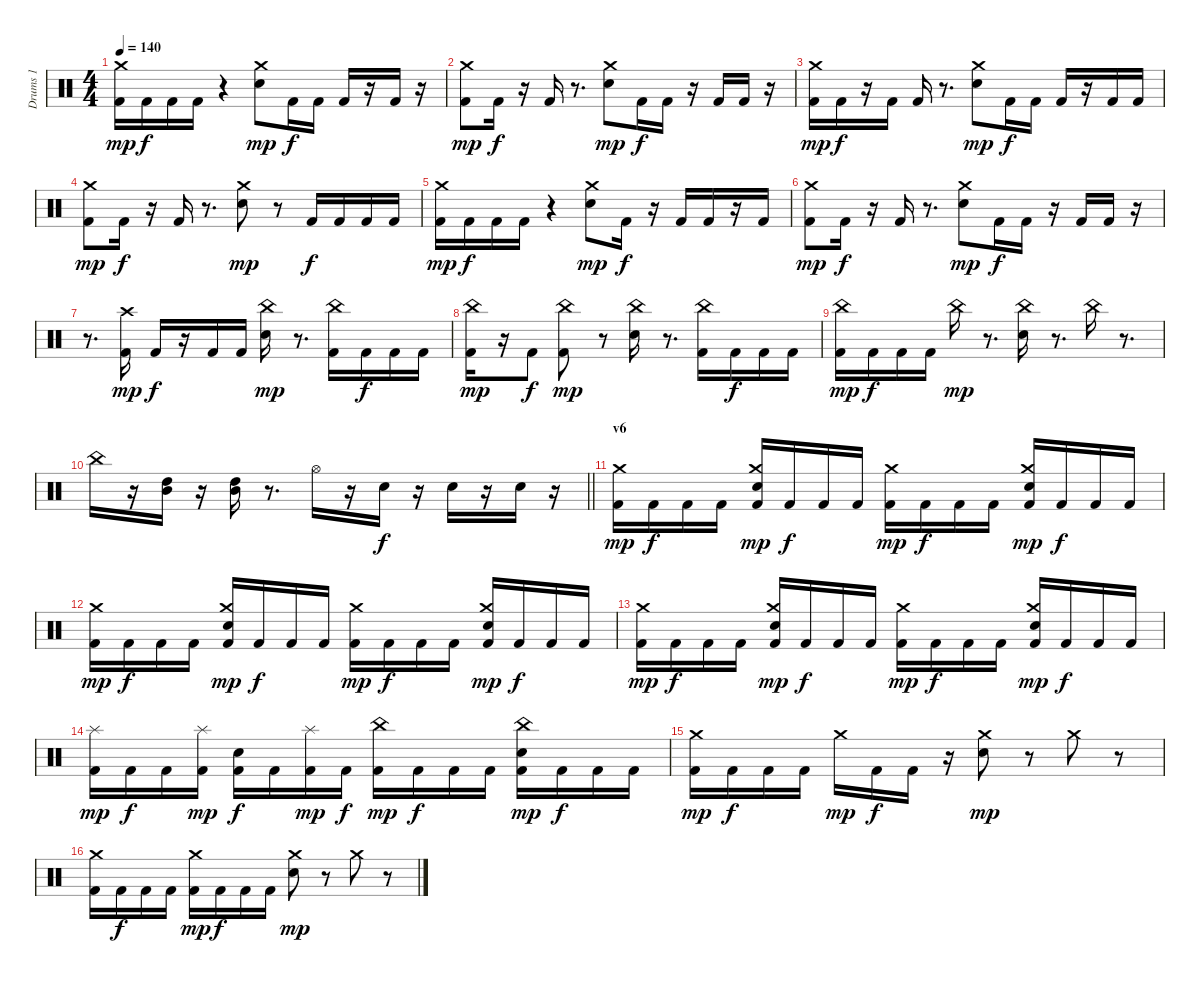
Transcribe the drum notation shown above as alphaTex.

\track ("Drums 1" "Drums 1") {instrument percussion}
\staff {score}
\articulation defaults
\ts (4 4)
\tempo 140
\clef neutral
\ks c
("Kick (hit) 2" "Crash medium (hit)").16{dy mp} "Kick (hit) 2".16{dy f} "Kick (hit) 2".16 "Kick (hit) 2".16 r.4 ("Snare (hit) 2" "Crash medium (hit)").8{dy mp} "Kick (hit) 2".16{dy f} "Kick (hit) 2".16 "Kick (hit) 2".16 r.16 "Kick (hit) 2".16 r.16 |
("Kick (hit) 2" "Crash medium (hit)").8{dy mp} "Kick (hit) 2".16{dy f} r.16 "Kick (hit) 2".16 r.8{d} ("Snare (hit) 2" "Crash medium (hit)").8{dy mp} "Kick (hit) 2".16{dy f} "Kick (hit) 2".16 r.16 "Kick (hit) 2".16 "Kick (hit) 2".16 r.16 |
("Crash medium (hit)" "Kick (hit) 2").16{dy mp} "Kick (hit) 2".16{dy f} r.16 "Kick (hit) 2".16 "Kick (hit) 2".16 r.8{d} ("Crash medium (hit)" "Snare (hit) 2").8{dy mp} "Kick (hit) 2".16{dy f} "Kick (hit) 2".16 "Kick (hit) 2".16 r.16 "Kick (hit) 2".16 "Kick (hit) 2".16 |
("Crash medium (hit)" "Kick (hit) 2").8{dy mp} "Kick (hit) 2".16{dy f} r.16 "Kick (hit) 2".16 r.8{d} ("Crash medium (hit)" "Snare (hit) 2").8{dy mp} r.8 "Kick (hit) 2".16{dy f} "Kick (hit) 2".16 "Kick (hit) 2".16 "Kick (hit) 2".16 |
("Crash medium (hit)" "Kick (hit) 2").16{dy mp} "Kick (hit) 2".16{dy f} "Kick (hit) 2".16 "Kick (hit) 2".16 r.4 ("Snare (hit) 2" "Crash medium (hit)").8{dy mp} "Kick (hit) 2".16{dy f} r.16 "Kick (hit) 2".16 "Kick (hit) 2".16 r.16 "Kick (hit) 2".16 |
("Crash medium (hit)" "Kick (hit) 2").8{dy mp} "Kick (hit) 2".16{dy f} r.16 "Kick (hit) 2".16 r.8{d} ("Crash medium (hit)" "Snare (hit) 2").8{dy mp} "Kick (hit) 2".16{dy f} "Kick (hit) 2".16 r.16 "Kick (hit) 2".16 "Kick (hit) 2".16 r.16 |
r.8{d} ("Crash high (hit)" "Kick (hit) 2").16{dy mp} "Kick (hit) 2".16{dy f} r.16 "Kick (hit) 2".16 "Kick (hit) 2".16 ("China (hit)" "Snare (hit) 2").16{dy mp} r.8{d} ("China (hit)" "Kick (hit) 2").16 "Kick (hit) 2".16{dy f} "Kick (hit) 2".16 "Kick (hit) 2".16 |
("China (hit)" "Kick (hit) 2").16{dy mp} r.16 "Kick (hit) 2".8{dy f} ("China (hit)" "Kick (hit) 2").8{dy mp} r.8 ("China (hit)" "Snare (hit) 2").16 r.8{d} ("China (hit)" "Kick (hit) 2").16 "Kick (hit) 2".16{dy f} "Kick (hit) 2".16 "Kick (hit) 2".16 |
("China (hit)" "Kick (hit) 2").16{dy mp} "Kick (hit) 2".16{dy f} "Kick (hit) 2".16 "Kick (hit) 2".16 "China (hit)".16{dy mp} r.8{d} ("China (hit)" "Snare (hit) 2").16 r.8{d} "China (hit)".16 r.8{d} |
\barLineRight lightlight "China (hit)".16
r.16 ("Mid Tom (hit)" "High Tom (hit)").16 r.16 ("Mid Tom (hit)" "High Tom (hit)").16 r.8{d} "Hi-Hat (open)".16 r.16 "Snare (hit) 2".16{dy f} r.16 "Snare (hit) 2".16 r.16 "Snare (hit) 2".16 r.16 |
\section ("" "v6")
("Kick (hit) 2" "Crash medium (hit)").16{dy mp} "Kick (hit) 2".16{dy f} "Kick (hit) 2".16 "Kick (hit) 2".16 ("Crash medium (hit)" "Kick (hit) 2" "Snare (hit) 2").16{dy mp} "Kick (hit) 2".16{dy f} "Kick (hit) 2".16 "Kick (hit) 2".16 ("Kick (hit) 2" "Crash medium (hit)").16{dy mp} "Kick (hit) 2".16{dy f} "Kick (hit) 2".16 "Kick (hit) 2".16 ("Crash medium (hit)" "Snare (hit) 2" "Kick (hit) 2").16{dy mp} "Kick (hit) 2".16{dy f} "Kick (hit) 2".16 "Kick (hit) 2".16 |
("Kick (hit) 2" "Crash medium (hit)").16{dy mp} "Kick (hit) 2".16{dy f} "Kick (hit) 2".16 "Kick (hit) 2".16 ("Crash medium (hit)" "Kick (hit) 2" "Snare (hit) 2").16{dy mp} "Kick (hit) 2".16{dy f} "Kick (hit) 2".16 "Kick (hit) 2".16 ("Kick (hit) 2" "Crash medium (hit)").16{dy mp} "Kick (hit) 2".16{dy f} "Kick (hit) 2".16 "Kick (hit) 2".16 ("Crash medium (hit)" "Snare (hit) 2" "Kick (hit) 2").16{dy mp} "Kick (hit) 2".16{dy f} "Kick (hit) 2".16 "Kick (hit) 2".16 |
("Kick (hit) 2" "Crash medium (hit)").16{dy mp} "Kick (hit) 2".16{dy f} "Kick (hit) 2".16 "Kick (hit) 2".16 ("Crash medium (hit)" "Kick (hit) 2" "Snare (hit) 2").16{dy mp} "Kick (hit) 2".16{dy f} "Kick (hit) 2".16 "Kick (hit) 2".16 ("Kick (hit) 2" "Crash medium (hit)").16{dy mp} "Kick (hit) 2".16{dy f} "Kick (hit) 2".16 "Kick (hit) 2".16 ("Crash medium (hit)" "Snare (hit) 2" "Kick (hit) 2").16{dy mp} "Kick (hit) 2".16{dy f} "Kick (hit) 2".16 "Kick (hit) 2".16 |
("Splash (hit)" "Kick (hit) 2").16{dy mp} "Kick (hit) 2".16{dy f} "Kick (hit) 2".16 ("Splash (hit)" "Kick (hit) 2").16{dy mp} ("Kick (hit) 2" "Snare (hit) 2").16{dy f} "Kick (hit) 2".16 ("Splash (hit)" "Kick (hit) 2").16{dy mp} "Kick (hit) 2".16{dy f} ("Kick (hit) 2" "China (hit)").16{dy mp} "Kick (hit) 2".16{dy f} "Kick (hit) 2".16 "Kick (hit) 2".16 ("China (hit)" "Snare (hit) 2" "Kick (hit) 2").16{dy mp} "Kick (hit) 2".16{dy f} "Kick (hit) 2".16 "Kick (hit) 2".16 |
("Kick (hit) 2" "Crash medium (hit)").16{dy mp} "Kick (hit) 2".16{dy f} "Kick (hit) 2".16 "Kick (hit) 2".16 "Crash medium (hit)".16{dy mp} "Kick (hit) 2".16{dy f} "Kick (hit) 2".16 r.16 ("Snare (hit) 2" "Crash medium (hit)").8{dy mp} r.8 "Crash medium (hit)".8 r.8 |
("Kick (hit) 2" "Crash medium (hit)").16 "Kick (hit) 2".16{dy f} "Kick (hit) 2".16 "Kick (hit) 2".16 ("Crash medium (hit)" "Kick (hit) 2").16{dy mp} "Kick (hit) 2".16{dy f} "Kick (hit) 2".16 "Kick (hit) 2".16 ("Crash medium (hit)" "Snare (hit) 2").8{dy mp} r.8 "Crash medium (hit)".8 r.8
